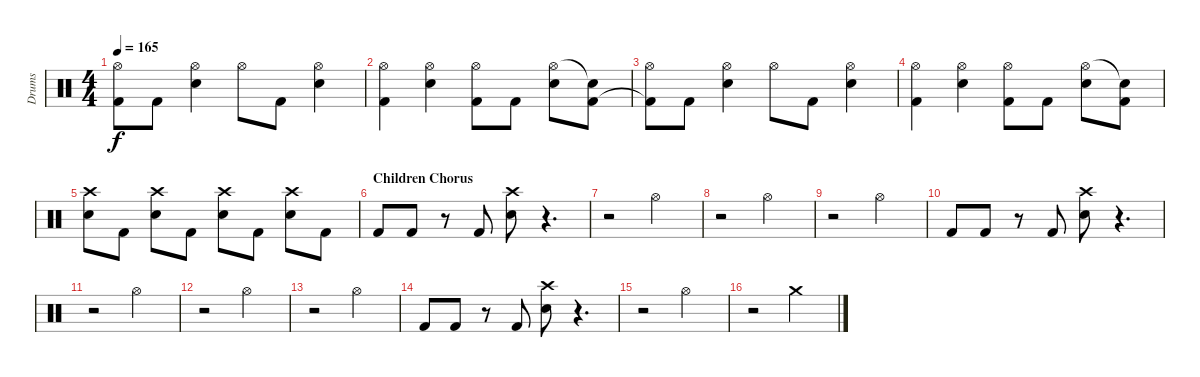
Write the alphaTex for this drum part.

\track ("Drums" "Drums") {instrument percussion}
\staff {score}
\articulation defaults
\ts (4 4)
\tempo 165
\clef neutral
\ks c
("Hi-Hat (open)" "Kick (hit) 2"{t}).8{dy f} "Kick (hit) 2".8 ("Hi-Hat (open)" "Snare (hit) 2").4 "Hi-Hat (open)".8 "Kick (hit) 2".8 ("Hi-Hat (open)" "Snare (hit) 2").4 |
("Hi-Hat (open)" "Kick (hit) 2").4 ("Hi-Hat (open)" "Snare (hit) 2").4 ("Hi-Hat (open)" "Kick (hit) 2").8 "Kick (hit) 2".8 ("Hi-Hat (open)" "Snare (hit) 2").8 ("Snare (hit) 2"{t} "Kick (hit) 2").8 |
("Hi-Hat (open)" "Kick (hit) 2"{t}).8 "Kick (hit) 2".8 ("Hi-Hat (open)" "Snare (hit) 2").4 "Hi-Hat (open)".8 "Kick (hit) 2".8 ("Hi-Hat (open)" "Snare (hit) 2").4 |
("Hi-Hat (open)" "Kick (hit) 2").4 ("Hi-Hat (open)" "Snare (hit) 2").4 ("Hi-Hat (open)" "Kick (hit) 2").8 "Kick (hit) 2".8 ("Hi-Hat (open)" "Snare (hit) 2").8 ("Snare (hit) 2"{t} "Kick (hit) 2").8 |
("Crash high (hit)" "Snare (hit) 2").8 "Kick (hit) 2".8 ("Crash high (hit)" "Snare (hit) 2").8 "Kick (hit) 2".8 ("Crash high (hit)" "Snare (hit) 2").8 "Kick (hit) 2".8 ("Crash high (hit)" "Snare (hit) 2").8 "Kick (hit) 2".8 |
\section ("" "Children Chorus")
"Kick (hit) 2".8 "Kick (hit) 2".8 r.8 "Kick (hit) 2".8 ("Crash high (hit)" "Snare (hit) 2").8 r.4{d} |
r.2 "Hi-Hat (open)".2 |
r.2 "Hi-Hat (open)".2 |
r.2 "Hi-Hat (open)".2 |
"Kick (hit) 2".8 "Kick (hit) 2".8 r.8 "Kick (hit) 2".8 ("Crash high (hit)" "Snare (hit) 2").8 r.4{d} |
r.2 "Hi-Hat (open)".2 |
r.2 "Hi-Hat (open)".2 |
r.2 "Hi-Hat (open)".2 |
"Kick (hit) 2".8 "Kick (hit) 2".8 r.8 "Kick (hit) 2".8 ("Crash high (hit)" "Snare (hit) 2").8 r.4{d} |
r.2 "Hi-Hat (open)".2 |
r.2 "Crash medium (hit)".2
